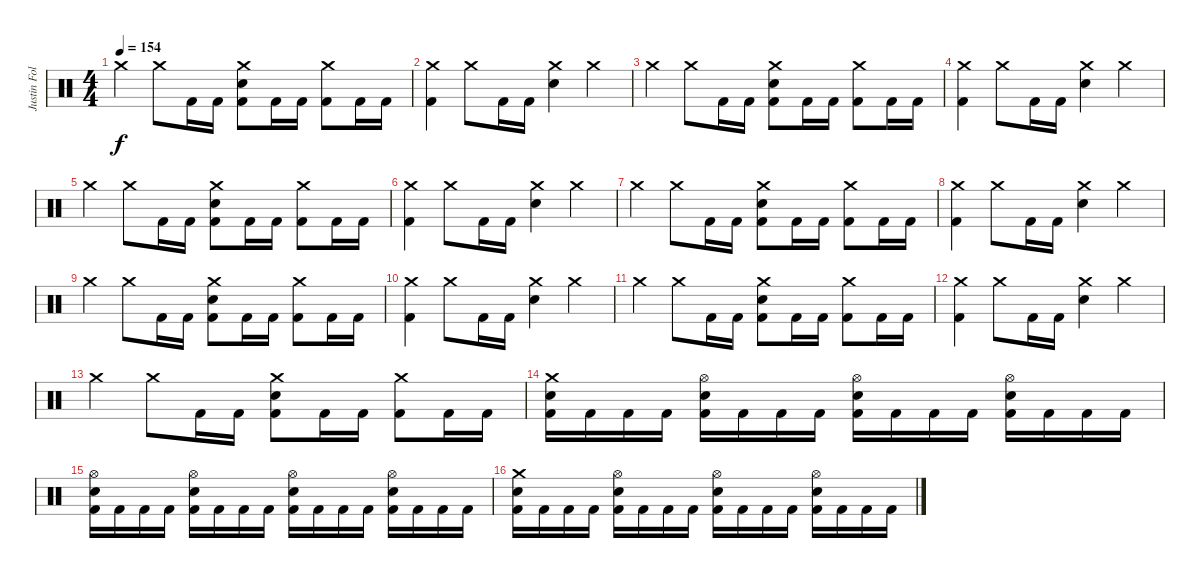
\track ("Justin Foley" "Justin Fol") {instrument percussion}
\staff {score}
\articulation defaults
\ts (4 4)
\tempo 154
\clef neutral
\ks c "Crash medium (hit)".4{dy f} "Crash medium (hit)".8 "Kick (hit) 2".16 "Kick (hit) 2".16
("Crash medium (hit)" "Electric Snare (hit)" "Kick (hit) 2").8 "Kick (hit) 2".16 "Kick (hit) 2".16 ("Crash medium (hit)" "Kick (hit) 2").8 "Kick (hit) 2".16 "Kick (hit) 2".16 |
("Crash medium (hit)" "Kick (hit) 2").4 "Crash medium (hit)".8 "Kick (hit) 2".16 "Kick (hit) 2".16 ("Crash medium (hit)" "Electric Snare (hit)").4 "Crash medium (hit)".4 |
"Crash medium (hit)".4 "Crash medium (hit)".8 "Kick (hit) 2".16 "Kick (hit) 2".16 ("Crash medium (hit)" "Electric Snare (hit)" "Kick (hit) 2").8 "Kick (hit) 2".16 "Kick (hit) 2".16 ("Crash medium (hit)" "Kick (hit) 2").8 "Kick (hit) 2".16 "Kick (hit) 2".16 |
("Crash medium (hit)" "Kick (hit) 2").4 "Crash medium (hit)".8 "Kick (hit) 2".16 "Kick (hit) 2".16 ("Crash medium (hit)" "Electric Snare (hit)").4 "Crash medium (hit)".4 |
"Crash medium (hit)".4 "Crash medium (hit)".8 "Kick (hit) 2".16 "Kick (hit) 2".16 ("Crash medium (hit)" "Electric Snare (hit)" "Kick (hit) 2").8 "Kick (hit) 2".16 "Kick (hit) 2".16 ("Crash medium (hit)" "Kick (hit) 2").8 "Kick (hit) 2".16 "Kick (hit) 2".16 |
("Crash medium (hit)" "Kick (hit) 2").4 "Crash medium (hit)".8 "Kick (hit) 2".16 "Kick (hit) 2".16 ("Crash medium (hit)" "Electric Snare (hit)").4 "Crash medium (hit)".4 |
"Crash medium (hit)".4 "Crash medium (hit)".8 "Kick (hit) 2".16 "Kick (hit) 2".16 ("Crash medium (hit)" "Electric Snare (hit)" "Kick (hit) 2").8 "Kick (hit) 2".16 "Kick (hit) 2".16 ("Crash medium (hit)" "Kick (hit) 2").8 "Kick (hit) 2".16 "Kick (hit) 2".16 |
("Crash medium (hit)" "Kick (hit) 2").4 "Crash medium (hit)".8 "Kick (hit) 2".16 "Kick (hit) 2".16 ("Crash medium (hit)" "Electric Snare (hit)").4 "Crash medium (hit)".4 |
"Crash medium (hit)".4 "Crash medium (hit)".8 "Kick (hit) 2".16 "Kick (hit) 2".16 ("Crash medium (hit)" "Electric Snare (hit)" "Kick (hit) 2").8 "Kick (hit) 2".16 "Kick (hit) 2".16 ("Crash medium (hit)" "Kick (hit) 2").8 "Kick (hit) 2".16 "Kick (hit) 2".16 |
("Crash medium (hit)" "Kick (hit) 2").4 "Crash medium (hit)".8 "Kick (hit) 2".16 "Kick (hit) 2".16 ("Crash medium (hit)" "Electric Snare (hit)").4 "Crash medium (hit)".4 |
"Crash medium (hit)".4 "Crash medium (hit)".8 "Kick (hit) 2".16 "Kick (hit) 2".16 ("Crash medium (hit)" "Electric Snare (hit)" "Kick (hit) 2").8 "Kick (hit) 2".16 "Kick (hit) 2".16 ("Crash medium (hit)" "Kick (hit) 2").8 "Kick (hit) 2".16 "Kick (hit) 2".16 |
("Crash medium (hit)" "Kick (hit) 2").4 "Crash medium (hit)".8 "Kick (hit) 2".16 "Kick (hit) 2".16 ("Crash medium (hit)" "Electric Snare (hit)").4 "Crash medium (hit)".4 |
"Crash medium (hit)".4 "Crash medium (hit)".8 "Kick (hit) 2".16 "Kick (hit) 2".16 ("Crash medium (hit)" "Electric Snare (hit)" "Kick (hit) 2").8 "Kick (hit) 2".16 "Kick (hit) 2".16 ("Crash medium (hit)" "Kick (hit) 2").8 "Kick (hit) 2".16 "Kick (hit) 2".16 |
("Crash medium (hit)" "Electric Snare (hit)" "Kick (hit) 2").16 "Kick (hit) 2".16 "Kick (hit) 2".16 "Kick (hit) 2".16 ("Hi-Hat (open)" "Electric Snare (hit)" "Kick (hit) 2").16 "Kick (hit) 2".16 "Kick (hit) 2".16 "Kick (hit) 2".16 ("Hi-Hat (open)" "Electric Snare (hit)" "Kick (hit) 2").16 "Kick (hit) 2".16 "Kick (hit) 2".16 "Kick (hit) 2".16 ("Hi-Hat (open)" "Electric Snare (hit)" "Kick (hit) 2").16 "Kick (hit) 2".16 "Kick (hit) 2".16 "Kick (hit) 2".16 |
("Hi-Hat (open)" "Electric Snare (hit)" "Kick (hit) 2").16 "Kick (hit) 2".16 "Kick (hit) 2".16 "Kick (hit) 2".16 ("Hi-Hat (open)" "Electric Snare (hit)" "Kick (hit) 2").16 "Kick (hit) 2".16 "Kick (hit) 2".16 "Kick (hit) 2".16 ("Hi-Hat (open)" "Electric Snare (hit)" "Kick (hit) 2").16 "Kick (hit) 2".16 "Kick (hit) 2".16 "Kick (hit) 2".16 ("Hi-Hat (open)" "Electric Snare (hit)" "Kick (hit) 2").16 "Kick (hit) 2".16 "Kick (hit) 2".16 "Kick (hit) 2".16 |
("Crash medium (hit)" "Electric Snare (hit)" "Kick (hit) 2").16 "Kick (hit) 2".16 "Kick (hit) 2".16 "Kick (hit) 2".16 ("Hi-Hat (open)" "Electric Snare (hit)" "Kick (hit) 2").16 "Kick (hit) 2".16 "Kick (hit) 2".16 "Kick (hit) 2".16 ("Hi-Hat (open)" "Electric Snare (hit)" "Kick (hit) 2").16 "Kick (hit) 2".16 "Kick (hit) 2".16 "Kick (hit) 2".16 ("Hi-Hat (open)" "Electric Snare (hit)" "Kick (hit) 2").16 "Kick (hit) 2".16 "Kick (hit) 2".16 "Kick (hit) 2".16
